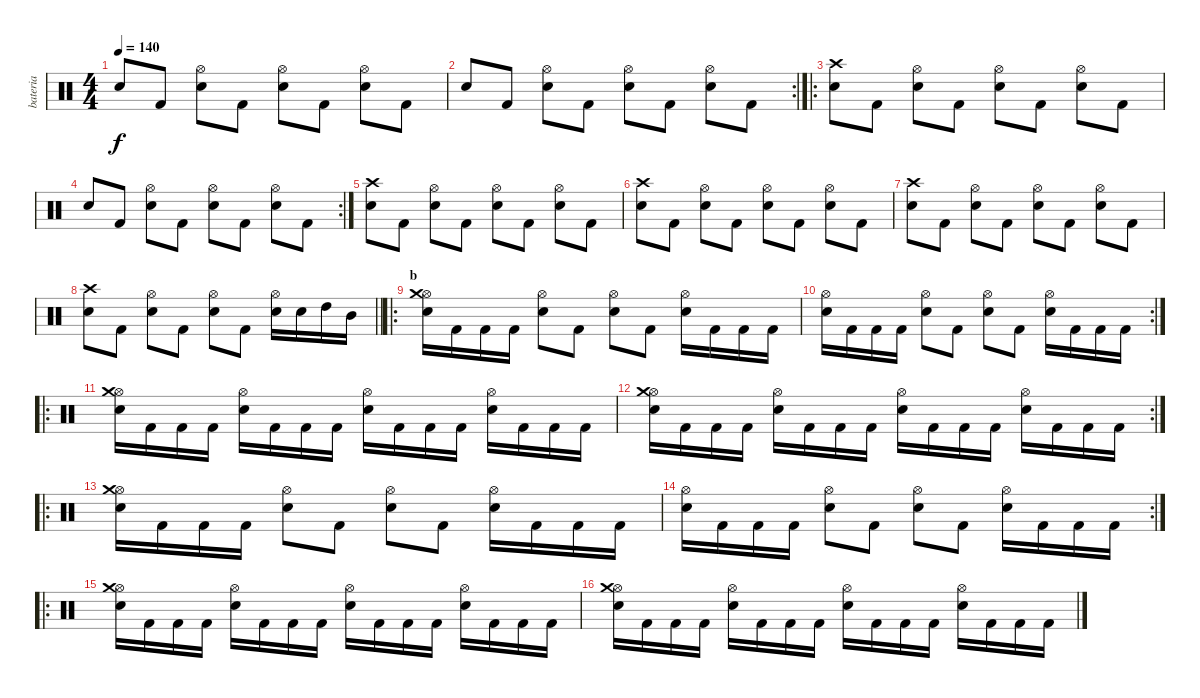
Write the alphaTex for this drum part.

\track ("bateria" "bateria") {mute instrument percussion}
\staff {score}
\articulation defaults
\ts (4 4)
\tempo 140
\clef neutral
\ks c "Electric Snare (hit)".8{dy f} "Kick (hit) 2".8
("Electric Snare (hit)" "Hi-Hat (open)").8 "Kick (hit) 2".8 ("Electric Snare (hit)" "Hi-Hat (open)").8 "Kick (hit) 2".8 ("Electric Snare (hit)" "Hi-Hat (open)").8 "Kick (hit) 2".8 |
\rc 2 "Electric Snare (hit)".8 "Kick (hit) 2".8
("Electric Snare (hit)" "Hi-Hat (open)").8 "Kick (hit) 2".8 ("Electric Snare (hit)" "Hi-Hat (open)").8 "Kick (hit) 2".8 ("Electric Snare (hit)" "Hi-Hat (open)").8 "Kick (hit) 2".8 |
\ro
("Electric Snare (hit)" "Crash high (hit)").8 "Kick (hit) 2".8 ("Electric Snare (hit)" "Hi-Hat (open)").8 "Kick (hit) 2".8 ("Electric Snare (hit)" "Hi-Hat (open)").8 "Kick (hit) 2".8 ("Electric Snare (hit)" "Hi-Hat (open)").8 "Kick (hit) 2".8 |
\rc 2 "Electric Snare (hit)".8 "Kick (hit) 2".8
("Electric Snare (hit)" "Hi-Hat (open)").8 "Kick (hit) 2".8 ("Electric Snare (hit)" "Hi-Hat (open)").8 "Kick (hit) 2".8 ("Electric Snare (hit)" "Hi-Hat (open)").8 "Kick (hit) 2".8 |
("Electric Snare (hit)" "Crash high (hit)").8 "Kick (hit) 2".8 ("Electric Snare (hit)" "Hi-Hat (open)").8 "Kick (hit) 2".8 ("Electric Snare (hit)" "Hi-Hat (open)").8 "Kick (hit) 2".8 ("Electric Snare (hit)" "Hi-Hat (open)").8 "Kick (hit) 2".8 |
("Electric Snare (hit)" "Crash high (hit)").8 "Kick (hit) 2".8 ("Electric Snare (hit)" "Hi-Hat (open)").8 "Kick (hit) 2".8 ("Electric Snare (hit)" "Hi-Hat (open)").8 "Kick (hit) 2".8 ("Electric Snare (hit)" "Hi-Hat (open)").8 "Kick (hit) 2".8 |
("Electric Snare (hit)" "Crash high (hit)").8 "Kick (hit) 2".8 ("Electric Snare (hit)" "Hi-Hat (open)").8 "Kick (hit) 2".8 ("Electric Snare (hit)" "Hi-Hat (open)").8 "Kick (hit) 2".8 ("Electric Snare (hit)" "Hi-Hat (open)").8 "Kick (hit) 2".8 |
\barLineRight lightlight
("Electric Snare (hit)" "Crash high (hit)").8 "Kick (hit) 2".8 ("Electric Snare (hit)" "Hi-Hat (open)").8 "Kick (hit) 2".8 ("Electric Snare (hit)" "Hi-Hat (open)").8 "Kick (hit) 2".8 ("Electric Snare (hit)" "Hi-Hat (open)").16 "Electric Snare (hit)".16 "High Tom (hit)".16 "Mid Tom (hit)".16 |
\ro
\section ("" "b")
("Electric Snare (hit)" "Hi-Hat (open)" "Crash medium (hit)").16 "Kick (hit) 2".16 "Kick (hit) 2".16 "Kick (hit) 2".16 ("Electric Snare (hit)" "Hi-Hat (open)").8 "Kick (hit) 2".8 ("Electric Snare (hit)" "Hi-Hat (open)").8 "Kick (hit) 2".8 ("Electric Snare (hit)" "Hi-Hat (open)").16 "Kick (hit) 2".16 "Kick (hit) 2".16 "Kick (hit) 2".16 |
\rc 2
("Electric Snare (hit)" "Hi-Hat (open)").16 "Kick (hit) 2".16 "Kick (hit) 2".16 "Kick (hit) 2".16 ("Electric Snare (hit)" "Hi-Hat (open)").8 "Kick (hit) 2".8 ("Electric Snare (hit)" "Hi-Hat (open)").8 "Kick (hit) 2".8 ("Electric Snare (hit)" "Hi-Hat (open)").16 "Kick (hit) 2".16 "Kick (hit) 2".16 "Kick (hit) 2".16 |
\ro
("Electric Snare (hit)" "Hi-Hat (open)" "Crash medium (hit)").16 "Kick (hit) 2".16 "Kick (hit) 2".16 "Kick (hit) 2".16 ("Electric Snare (hit)" "Hi-Hat (open)").16 "Kick (hit) 2".16 "Kick (hit) 2".16 "Kick (hit) 2".16 ("Electric Snare (hit)" "Hi-Hat (open)").16 "Kick (hit) 2".16 "Kick (hit) 2".16 "Kick (hit) 2".16 ("Electric Snare (hit)" "Hi-Hat (open)").16 "Kick (hit) 2".16 "Kick (hit) 2".16 "Kick (hit) 2".16 |
\rc 2
("Electric Snare (hit)" "Hi-Hat (open)" "Crash medium (hit)").16 "Kick (hit) 2".16 "Kick (hit) 2".16 "Kick (hit) 2".16 ("Electric Snare (hit)" "Hi-Hat (open)").16 "Kick (hit) 2".16 "Kick (hit) 2".16 "Kick (hit) 2".16 ("Electric Snare (hit)" "Hi-Hat (open)").16 "Kick (hit) 2".16 "Kick (hit) 2".16 "Kick (hit) 2".16 ("Electric Snare (hit)" "Hi-Hat (open)").16 "Kick (hit) 2".16 "Kick (hit) 2".16 "Kick (hit) 2".16 |
\ro
("Electric Snare (hit)" "Hi-Hat (open)" "Crash medium (hit)").16 "Kick (hit) 2".16 "Kick (hit) 2".16 "Kick (hit) 2".16 ("Electric Snare (hit)" "Hi-Hat (open)").8 "Kick (hit) 2".8 ("Electric Snare (hit)" "Hi-Hat (open)").8 "Kick (hit) 2".8 ("Electric Snare (hit)" "Hi-Hat (open)").16 "Kick (hit) 2".16 "Kick (hit) 2".16 "Kick (hit) 2".16 |
\rc 2
("Electric Snare (hit)" "Hi-Hat (open)").16 "Kick (hit) 2".16 "Kick (hit) 2".16 "Kick (hit) 2".16 ("Electric Snare (hit)" "Hi-Hat (open)").8 "Kick (hit) 2".8 ("Electric Snare (hit)" "Hi-Hat (open)").8 "Kick (hit) 2".8 ("Electric Snare (hit)" "Hi-Hat (open)").16 "Kick (hit) 2".16 "Kick (hit) 2".16 "Kick (hit) 2".16 |
\ro
("Electric Snare (hit)" "Hi-Hat (open)" "Crash medium (hit)").16 "Kick (hit) 2".16 "Kick (hit) 2".16 "Kick (hit) 2".16 ("Electric Snare (hit)" "Hi-Hat (open)").16 "Kick (hit) 2".16 "Kick (hit) 2".16 "Kick (hit) 2".16 ("Electric Snare (hit)" "Hi-Hat (open)").16 "Kick (hit) 2".16 "Kick (hit) 2".16 "Kick (hit) 2".16 ("Electric Snare (hit)" "Hi-Hat (open)").16 "Kick (hit) 2".16 "Kick (hit) 2".16 "Kick (hit) 2".16 |
("Electric Snare (hit)" "Hi-Hat (open)" "Crash medium (hit)").16 "Kick (hit) 2".16 "Kick (hit) 2".16 "Kick (hit) 2".16 ("Electric Snare (hit)" "Hi-Hat (open)").16 "Kick (hit) 2".16 "Kick (hit) 2".16 "Kick (hit) 2".16 ("Electric Snare (hit)" "Hi-Hat (open)").16 "Kick (hit) 2".16 "Kick (hit) 2".16 "Kick (hit) 2".16 ("Electric Snare (hit)" "Hi-Hat (open)").16 "Kick (hit) 2".16 "Kick (hit) 2".16 "Kick (hit) 2".16
